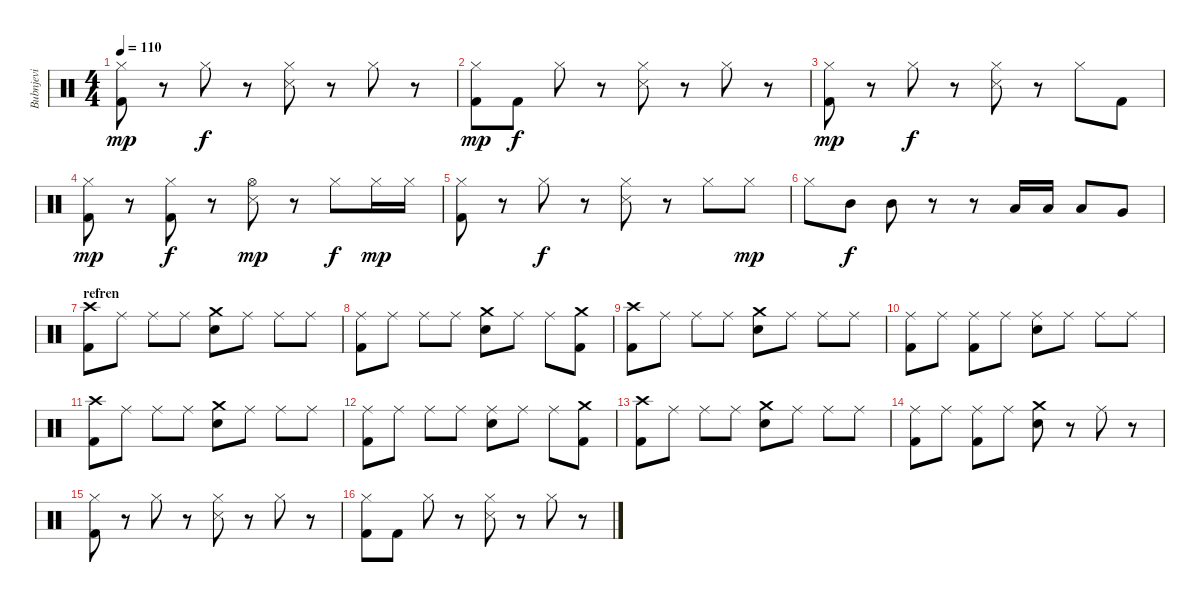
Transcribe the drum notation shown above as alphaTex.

\track ("Bubnjevi" "Bubnjevi") {instrument percussion}
\staff {score}
\articulation defaults
\ts (4 4)
\tempo 110
\clef neutral
\ks c
("Hi-Hat (closed)" "Kick (hit) 2").8{dy mp} r.8 "Hi-Hat (closed)".8{dy f} r.8 ("Hi-Hat (closed)" "Snare (side stick) 3").8 r.8 "Hi-Hat (closed)".8 r.8 |
("Hi-Hat (closed)" "Kick (hit) 2").8{dy mp} "Kick (hit) 2".8{dy f} "Hi-Hat (closed)".8 r.8 ("Hi-Hat (closed)" "Snare (side stick) 3").8 r.8 "Hi-Hat (closed)".8 r.8 |
("Hi-Hat (closed)" "Kick (hit) 2").8{dy mp} r.8 "Hi-Hat (closed)".8{dy f} r.8 ("Hi-Hat (closed)" "Snare (side stick) 3").8 r.8 "Hi-Hat (closed)".8 "Kick (hit) 2".8 |
("Hi-Hat (closed)" "Kick (hit) 2").8{dy mp} r.8 ("Hi-Hat (closed)" "Kick (hit) 2").8{dy f} r.8 ("Hi-Hat (open)" "Snare (side stick) 3").8{dy mp} r.8 "Hi-Hat (closed)".8{dy f} "Hi-Hat (closed)".16{dy mp} "Hi-Hat (closed)".16 |
("Hi-Hat (closed)" "Kick (hit) 2").8 r.8 "Hi-Hat (closed)".8{dy f} r.8 ("Hi-Hat (closed)" "Snare (side stick) 3").8 r.8 "Hi-Hat (closed)".8 "Hi-Hat (closed)".8{dy mp} |
"Hi-Hat (closed)".8 "Mid Tom (hit)".8{dy f} "Mid Tom (hit)".8 r.8 r.8 "Low Tom (hit)".16 "Low Tom (hit)".16 "Low Tom (hit)".8 "Very Low Tom (hit)".8 |
\section ("" "refren")
("Crash high (hit)" "Kick (hit) 2").8 "Ride (middle)".8 "Ride (middle)".8 "Ride (middle)".8 ("Crash medium (hit)" "Electric Snare (hit)").8 "Ride (middle)".8 "Ride (middle)".8 "Ride (middle)".8 |
("Ride (middle)" "Kick (hit) 2").8 "Ride (middle)".8 "Ride (middle)".8 "Ride (middle)".8 ("Crash medium (hit)" "Electric Snare (hit)").8 "Ride (middle)".8 "Ride (middle)".8 ("Crash medium (hit)" "Kick (hit) 2").8 |
("Crash high (hit)" "Kick (hit) 2").8 "Ride (middle)".8 "Ride (middle)".8 "Ride (middle)".8 ("Crash medium (hit)" "Electric Snare (hit)").8 "Ride (middle)".8 "Ride (middle)".8 "Ride (middle)".8 |
("Ride (middle)" "Kick (hit) 2").8 "Ride (middle)".8 ("Ride (middle)" "Kick (hit) 2").8 "Ride (middle)".8 ("Ride (middle)" "Electric Snare (hit)").8 "Ride (middle)".8 "Ride (middle)".8 "Ride (middle)".8 |
("Crash high (hit)" "Kick (hit) 2").8 "Ride (middle)".8 "Ride (middle)".8 "Ride (middle)".8 ("Crash medium (hit)" "Electric Snare (hit)").8 "Ride (middle)".8 "Ride (middle)".8 "Ride (middle)".8 |
("Ride (middle)" "Kick (hit) 2").8 "Ride (middle)".8 "Ride (middle)".8 "Ride (middle)".8 ("Ride (middle)" "Electric Snare (hit)").8 "Ride (middle)".8 "Ride (middle)".8 ("Crash medium (hit)" "Kick (hit) 2").8 |
("Crash high (hit)" "Kick (hit) 2").8 "Ride (middle)".8 "Ride (middle)".8 "Ride (middle)".8 ("Crash medium (hit)" "Electric Snare (hit)").8 "Ride (middle)".8 "Ride (middle)".8 "Ride (middle)".8 |
("Ride (middle)" "Kick (hit) 2").8 "Ride (middle)".8 ("Ride (middle)" "Kick (hit) 2").8 "Ride (middle)".8 ("Crash medium (hit)" "Electric Snare (hit)").8 r.8 "Ride (middle)".8 r.8 |
("Hi-Hat (closed)" "Kick (hit) 2").8 r.8 "Hi-Hat (closed)".8 r.8 ("Hi-Hat (closed)" "Snare (side stick) 3").8 r.8 "Hi-Hat (closed)".8 r.8 |
("Hi-Hat (closed)" "Kick (hit) 2").8 "Kick (hit) 2".8 "Hi-Hat (closed)".8 r.8 ("Hi-Hat (closed)" "Snare (side stick) 3").8 r.8 "Hi-Hat (closed)".8 r.8
